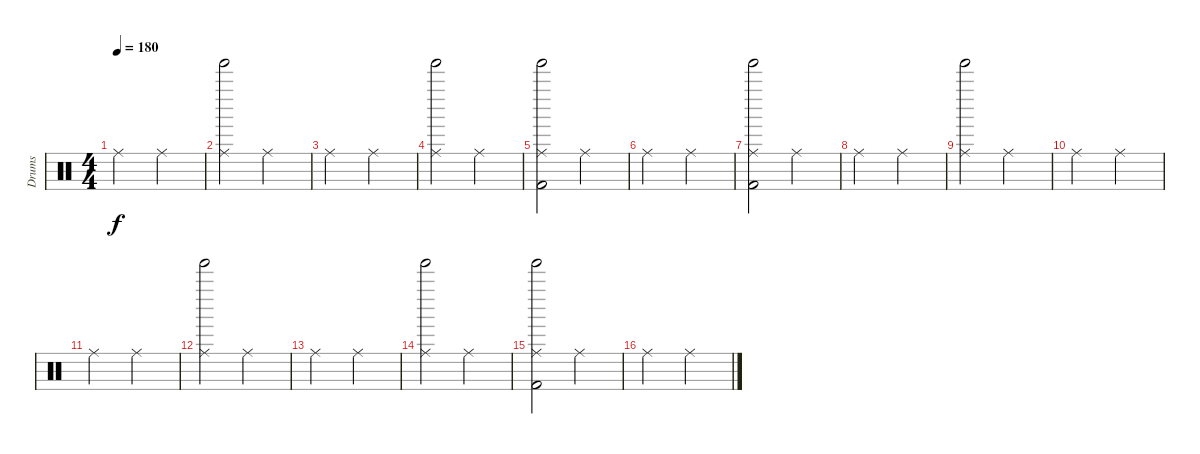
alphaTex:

\track ("Drums" "Drums") {instrument percussion}
\staff {score}
\articulation defaults
\ts (4 4)
\tempo 180
\clef neutral
\ks c "Ride (middle)".2{dy f} "Ride (middle)".2
|
("Ride (middle)" "Tinkle Bell (hit)").2 "Ride (middle)".2 |
"Ride (middle)".2 "Ride (middle)".2 |
("Ride (middle)" "Tinkle Bell (hit)").2 "Ride (middle)".2 |
("Ride (middle)" "Kick (hit) 2" "Tinkle Bell (hit)").2 "Ride (middle)".2 |
"Ride (middle)".2 "Ride (middle)".2 |
("Ride (middle)" "Kick (hit) 2" "Tinkle Bell (hit)").2 "Ride (middle)".2 |
"Ride (middle)".2 "Ride (middle)".2 |
("Ride (middle)" "Tinkle Bell (hit)").2 "Ride (middle)".2 |
"Ride (middle)".2 "Ride (middle)".2 |
"Ride (middle)".2 "Ride (middle)".2 |
("Ride (middle)" "Tinkle Bell (hit)").2 "Ride (middle)".2 |
"Ride (middle)".2 "Ride (middle)".2 |
("Ride (middle)" "Tinkle Bell (hit)").2 "Ride (middle)".2 |
("Ride (middle)" "Kick (hit) 2" "Tinkle Bell (hit)").2 "Ride (middle)".2 |
"Ride (middle)".2 "Ride (middle)".2
